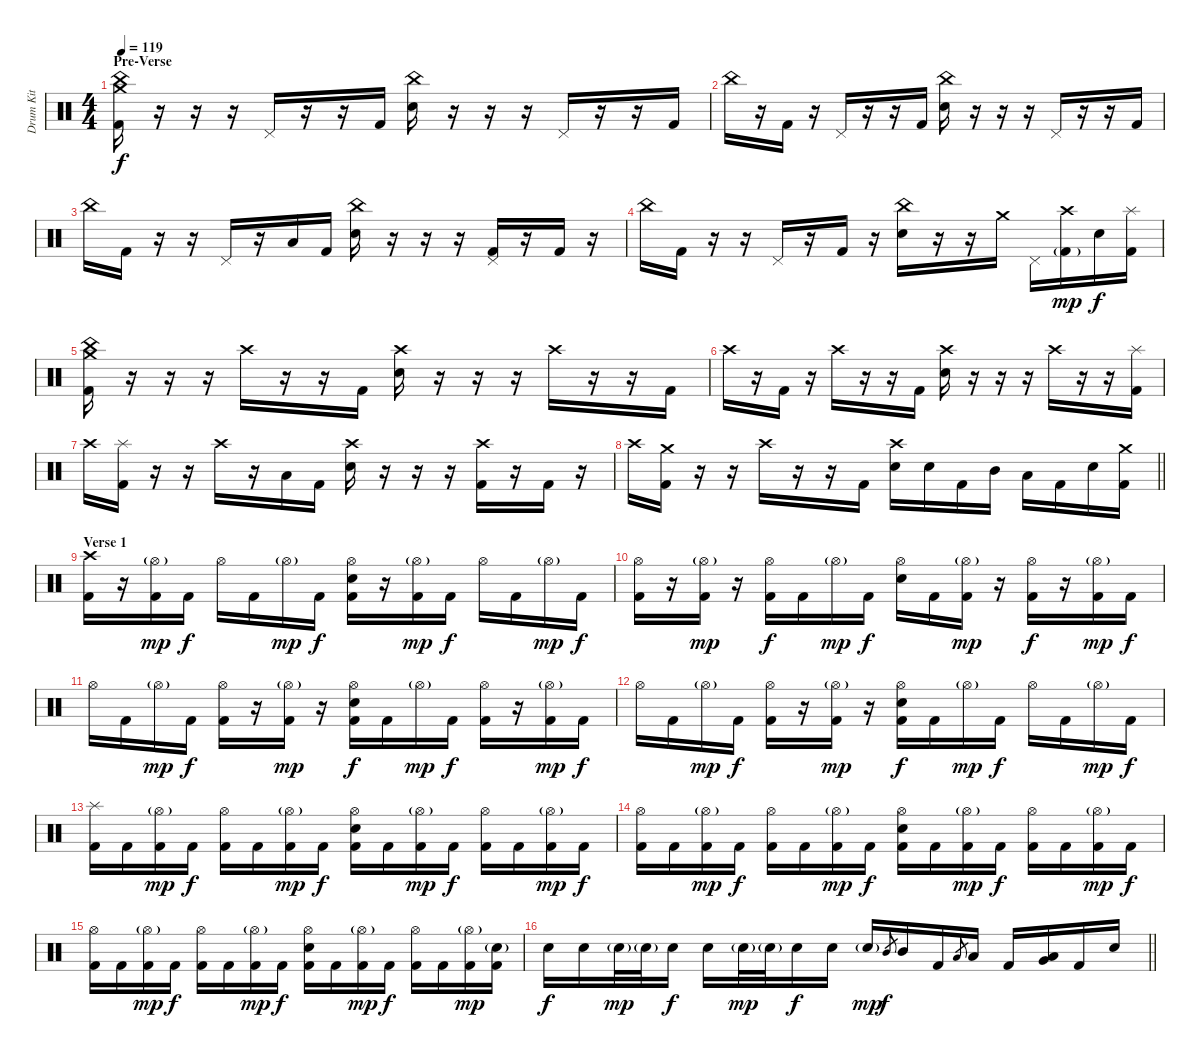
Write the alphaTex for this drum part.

\track ("Drum Kit" "Drum Kit") {instrument percussion}
\staff {score}
\articulation defaults
\ts (4 4)
\section ("" "Pre-Verse")
\tempo 119
\clef neutral
\ks c
("Crash medium (hit)" "China (hit)" "Kick (hit) 2").16{dy f} r.16 r.16 r.16 "Pedal Hi-Hat (hit)".16 r.16 r.16 "Kick (hit) 2".16 ("China (hit)" "Electric Snare (hit)").16 r.16 r.16 r.16 "Pedal Hi-Hat (hit)".16 r.16 r.16 "Kick (hit) 2".16 |
"China (hit)".16 r.16 "Kick (hit) 2".16 r.16 "Pedal Hi-Hat (hit)".16 r.16 r.16 "Kick (hit) 2".16 ("China (hit)" "Electric Snare (hit)").16 r.16 r.16 r.16 "Pedal Hi-Hat (hit)".16 r.16 r.16 "Kick (hit) 2".16 |
"China (hit)".16 "Kick (hit) 2".16 r.16 r.16 "Pedal Hi-Hat (hit)".16 r.16 "Low Tom (hit)".16 "Kick (hit) 2".16 ("China (hit)" "Electric Snare (hit)").16 r.16 r.16 r.16 ("Pedal Hi-Hat (hit)" "Kick (hit) 2").16 r.16 "Kick (hit) 2".16 r.16 |
"China (hit)".16 "Kick (hit) 2".16 r.16 r.16 "Pedal Hi-Hat (hit)".16 r.16 "Kick (hit) 2".16 r.16 ("China (hit)" "Electric Snare (hit)").16 r.16 r.16 "Crash medium (hit)".16 "Pedal Hi-Hat (hit)".16 ("Crash high (hit)" "Kick (hit) 2"{g}).16{dy mp} "Electric Snare (hit)".16{dy f} ("Splash (hit)" "Kick (hit) 2").16 |
("Crash medium (hit)" "China (hit)" "Kick (hit) 2").16 r.16 r.16 r.16 "Crash high (hit)".16 r.16 r.16 "Kick (hit) 2".16 ("Crash high (hit)" "Electric Snare (hit)").16 r.16 r.16 r.16 "Crash high (hit)".16 r.16 r.16 "Kick (hit) 2".16 |
"Crash high (hit)".16 r.16 "Kick (hit) 2".16 r.16 "Crash high (hit)".16 r.16 r.16 "Kick (hit) 2".16 ("Crash high (hit)" "Electric Snare (hit)").16 r.16 r.16 r.16 "Crash high (hit)".16 r.16 r.16 ("Splash (hit)" "Kick (hit) 2").16 |
"Crash high (hit)".16 ("Splash (hit)" "Kick (hit) 2").16 r.16 r.16 "Crash high (hit)".16 r.16 "Low Tom (hit)".16 "Kick (hit) 2".16 ("Crash high (hit)" "Electric Snare (hit)").16 r.16 r.16 r.16 ("Crash high (hit)" "Kick (hit) 2").16 r.16 "Kick (hit) 2".16 r.16 |
\barLineRight lightlight "Crash high (hit)".16
("Crash medium (hit)" "Kick (hit) 2").16 r.16 r.16 "Crash high (hit)".16 r.16 r.16 "Kick (hit) 2".16 ("Crash high (hit)" "Electric Snare (hit)").16 "Electric Snare (hit)".16 "Kick (hit) 2".16 "Mid Tom (hit)".16 "Low Tom (hit)".16 "Kick (hit) 2".16 "Electric Snare (hit)".16 ("Crash medium (hit)" "Kick (hit) 2").16 |
\section ("" "Verse 1")
("Crash high (hit)" "Kick (hit) 2").16 r.16 ("Hi-Hat (open)"{g} "Kick (hit) 2").16{dy mp} "Kick (hit) 2".16{dy f} "Hi-Hat (open)".16 "Kick (hit) 2".16 "Hi-Hat (open)"{g}.16{dy mp} "Kick (hit) 2".16{dy f} ("Hi-Hat (open)" "Electric Snare (hit)" "Kick (hit) 2").16 r.16 ("Hi-Hat (open)"{g} "Kick (hit) 2").16{dy mp} "Kick (hit) 2".16{dy f} "Hi-Hat (open)".16 "Kick (hit) 2".16 "Hi-Hat (open)"{g}.16{dy mp} "Kick (hit) 2".16{dy f} |
("Hi-Hat (open)" "Kick (hit) 2").16 r.16 ("Hi-Hat (open)"{g} "Kick (hit) 2").16{dy mp} r.16 ("Hi-Hat (open)" "Kick (hit) 2").16{dy f} "Kick (hit) 2".16 "Hi-Hat (open)"{g}.16{dy mp} "Kick (hit) 2".16{dy f} ("Hi-Hat (open)" "Electric Snare (hit)").16 "Kick (hit) 2".16 ("Hi-Hat (open)"{g} "Kick (hit) 2").16{dy mp} r.16 ("Hi-Hat (open)" "Kick (hit) 2").16{dy f} r.16 ("Hi-Hat (open)"{g} "Kick (hit) 2").16{dy mp} "Kick (hit) 2".16{dy f} |
"Hi-Hat (open)".16 "Kick (hit) 2".16 "Hi-Hat (open)"{g}.16{dy mp} "Kick (hit) 2".16{dy f} ("Hi-Hat (open)" "Kick (hit) 2").16 r.16 ("Hi-Hat (open)"{g} "Kick (hit) 2").16{dy mp} r.16 ("Hi-Hat (open)" "Electric Snare (hit)" "Kick (hit) 2").16{dy f} "Kick (hit) 2".16 "Hi-Hat (open)"{g}.16{dy mp} "Kick (hit) 2".16{dy f} ("Hi-Hat (open)" "Kick (hit) 2").16 r.16 ("Hi-Hat (open)"{g} "Kick (hit) 2").16{dy mp} "Kick (hit) 2".16{dy f} |
"Hi-Hat (open)".16 "Kick (hit) 2".16 "Hi-Hat (open)"{g}.16{dy mp} "Kick (hit) 2".16{dy f} ("Hi-Hat (open)" "Kick (hit) 2").16 r.16 ("Hi-Hat (open)"{g} "Kick (hit) 2").16{dy mp} r.16 ("Hi-Hat (open)" "Electric Snare (hit)" "Kick (hit) 2").16{dy f} "Kick (hit) 2".16 "Hi-Hat (open)"{g}.16{dy mp} "Kick (hit) 2".16{dy f} "Hi-Hat (open)".16 "Kick (hit) 2".16 "Hi-Hat (open)"{g}.16{dy mp} "Kick (hit) 2".16{dy f} |
("Splash (hit)" "Kick (hit) 2").16 "Kick (hit) 2".16 ("Hi-Hat (open)"{g} "Kick (hit) 2").16{dy mp} "Kick (hit) 2".16{dy f} ("Hi-Hat (open)" "Kick (hit) 2").16 "Kick (hit) 2".16 ("Hi-Hat (open)"{g} "Kick (hit) 2").16{dy mp} "Kick (hit) 2".16{dy f} ("Hi-Hat (open)" "Electric Snare (hit)" "Kick (hit) 2").16 "Kick (hit) 2".16 ("Hi-Hat (open)"{g} "Kick (hit) 2").16{dy mp} "Kick (hit) 2".16{dy f} ("Hi-Hat (open)" "Kick (hit) 2").16 "Kick (hit) 2".16 ("Hi-Hat (open)"{g} "Kick (hit) 2").16{dy mp} "Kick (hit) 2".16{dy f} |
("Hi-Hat (open)" "Kick (hit) 2").16 "Kick (hit) 2".16 ("Hi-Hat (open)"{g} "Kick (hit) 2").16{dy mp} "Kick (hit) 2".16{dy f} ("Hi-Hat (open)" "Kick (hit) 2").16 "Kick (hit) 2".16 ("Hi-Hat (open)"{g} "Kick (hit) 2").16{dy mp} "Kick (hit) 2".16{dy f} ("Hi-Hat (open)" "Electric Snare (hit)" "Kick (hit) 2").16 "Kick (hit) 2".16 ("Hi-Hat (open)"{g} "Kick (hit) 2").16{dy mp} "Kick (hit) 2".16{dy f} ("Hi-Hat (open)" "Kick (hit) 2").16 "Kick (hit) 2".16 ("Hi-Hat (open)"{g} "Kick (hit) 2").16{dy mp} "Kick (hit) 2".16{dy f} |
("Hi-Hat (open)" "Kick (hit) 2").16 "Kick (hit) 2".16 ("Hi-Hat (open)"{g} "Kick (hit) 2").16{dy mp} "Kick (hit) 2".16{dy f} ("Hi-Hat (open)" "Kick (hit) 2").16 "Kick (hit) 2".16 ("Hi-Hat (open)"{g} "Kick (hit) 2").16{dy mp} "Kick (hit) 2".16{dy f} ("Hi-Hat (open)" "Electric Snare (hit)" "Kick (hit) 2").16 "Kick (hit) 2".16 ("Hi-Hat (open)"{g} "Kick (hit) 2").16{dy mp} "Kick (hit) 2".16{dy f} ("Hi-Hat (open)" "Kick (hit) 2").16 "Kick (hit) 2".16 ("Hi-Hat (open)"{g} "Kick (hit) 2").16{dy mp} ("Electric Snare (hit)"{g} "Kick (hit) 2").16 |
\barLineRight lightlight "Electric Snare (hit)".16{dy f} "Electric Snare (hit)".16 "Electric Snare (hit)"{g}.32{dy mp} "Electric Snare (hit)"{g}.32 "Electric Snare (hit)".16{dy f} "Electric Snare (hit)".16 "Electric Snare (hit)"{g}.32{dy mp} "Electric Snare (hit)"{g}.32 "Electric Snare (hit)".16{dy f} "Electric Snare (hit)".16 "Electric Snare (hit)"{g}.16{dy mp} "Mid Tom (hit)".8{gr dy f} "Mid Tom (hit)".16 "Kick (hit) 2".16 "Low Tom (hit)".8{gr} "Low Tom (hit)".16 "Kick (hit) 2".16
("Very Low Tom (hit)" "Low Floor Tom (hit)").16{bd 480} "Kick (hit) 2".16 "Electric Snare (hit)".16
